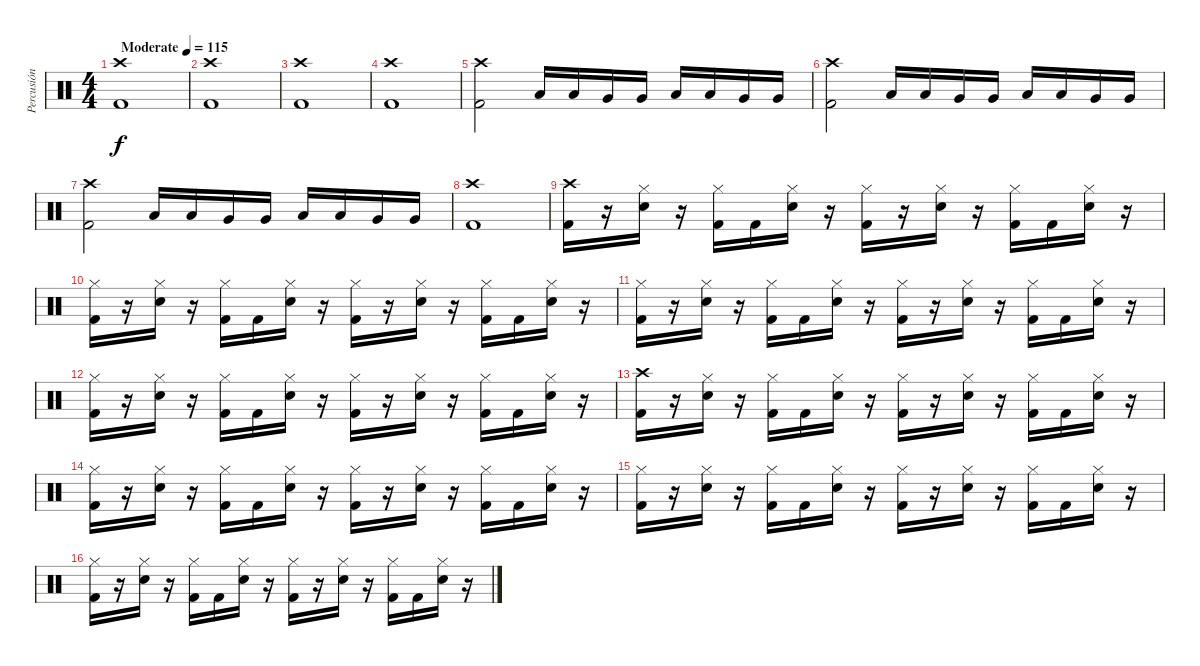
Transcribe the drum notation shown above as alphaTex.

\track ("Percusión" "Percusión") {instrument percussion}
\staff {score}
\articulation defaults
\ts (4 4)
\tempo (115 "Moderate")
\clef neutral
\ks c
("Crash high (hit)" "Kick (hit) 2").1{dy f} |
("Crash high (hit)" "Kick (hit) 2").1 |
("Crash high (hit)" "Kick (hit) 2").1 |
("Crash high (hit)" "Kick (hit) 2").1 |
("Crash high (hit)" "Kick (hit) 2").2 "Low Tom (hit)".16 "Low Tom (hit)".16 "Very Low Tom (hit)".16 "Very Low Tom (hit)".16 "Low Floor Tom (hit)".16 "Low Floor Tom (hit)".16 "Very Low Tom (hit)".16 "Very Low Tom (hit)".16 |
("Crash high (hit)" "Kick (hit) 2").2 "Low Tom (hit)".16 "Low Tom (hit)".16 "Very Low Tom (hit)".16 "Very Low Tom (hit)".16 "Low Floor Tom (hit)".16 "Low Floor Tom (hit)".16 "Very Low Tom (hit)".16 "Very Low Tom (hit)".16 |
("Crash high (hit)" "Kick (hit) 2").2 "Low Tom (hit)".16 "Low Tom (hit)".16 "Very Low Tom (hit)".16 "Very Low Tom (hit)".16 "Low Floor Tom (hit)".16 "Low Floor Tom (hit)".16 "Very Low Tom (hit)".16 "Very Low Tom (hit)".16 |
("Crash high (hit)" "Kick (hit) 2").1 |
("Crash high (hit)" "Kick (hit) 2").16 r.16 ("Hi-Hat (closed)" "Electric Snare (hit)").16 r.16 ("Hi-Hat (closed)" "Kick (hit) 2").16 "Kick (hit) 2".16 ("Hi-Hat (closed)" "Electric Snare (hit)").16 r.16 ("Hi-Hat (closed)" "Kick (hit) 2").16 r.16 ("Hi-Hat (closed)" "Electric Snare (hit)").16 r.16 ("Hi-Hat (closed)" "Kick (hit) 2").16 "Kick (hit) 2".16 ("Hi-Hat (closed)" "Electric Snare (hit)").16 r.16 |
("Hi-Hat (closed)" "Kick (hit) 2").16 r.16 ("Hi-Hat (closed)" "Electric Snare (hit)").16 r.16 ("Hi-Hat (closed)" "Kick (hit) 2").16 "Kick (hit) 2".16 ("Hi-Hat (closed)" "Electric Snare (hit)").16 r.16 ("Hi-Hat (closed)" "Kick (hit) 2").16 r.16 ("Hi-Hat (closed)" "Electric Snare (hit)").16 r.16 ("Hi-Hat (closed)" "Kick (hit) 2").16 "Kick (hit) 2".16 ("Hi-Hat (closed)" "Electric Snare (hit)").16 r.16 |
("Hi-Hat (closed)" "Kick (hit) 2").16 r.16 ("Hi-Hat (closed)" "Electric Snare (hit)").16 r.16 ("Hi-Hat (closed)" "Kick (hit) 2").16 "Kick (hit) 2".16 ("Hi-Hat (closed)" "Electric Snare (hit)").16 r.16 ("Hi-Hat (closed)" "Kick (hit) 2").16 r.16 ("Hi-Hat (closed)" "Electric Snare (hit)").16 r.16 ("Hi-Hat (closed)" "Kick (hit) 2").16 "Kick (hit) 2".16 ("Hi-Hat (closed)" "Electric Snare (hit)").16 r.16 |
("Hi-Hat (closed)" "Kick (hit) 2").16 r.16 ("Hi-Hat (closed)" "Electric Snare (hit)").16 r.16 ("Hi-Hat (closed)" "Kick (hit) 2").16 "Kick (hit) 2".16 ("Hi-Hat (closed)" "Electric Snare (hit)").16 r.16 ("Hi-Hat (closed)" "Kick (hit) 2").16 r.16 ("Hi-Hat (closed)" "Electric Snare (hit)").16 r.16 ("Hi-Hat (closed)" "Kick (hit) 2").16 "Kick (hit) 2".16 ("Hi-Hat (closed)" "Electric Snare (hit)").16 r.16 |
("Crash high (hit)" "Kick (hit) 2").16 r.16 ("Hi-Hat (closed)" "Electric Snare (hit)").16 r.16 ("Hi-Hat (closed)" "Kick (hit) 2").16 "Kick (hit) 2".16 ("Hi-Hat (closed)" "Electric Snare (hit)").16 r.16 ("Hi-Hat (closed)" "Kick (hit) 2").16 r.16 ("Hi-Hat (closed)" "Electric Snare (hit)").16 r.16 ("Hi-Hat (closed)" "Kick (hit) 2").16 "Kick (hit) 2".16 ("Hi-Hat (closed)" "Electric Snare (hit)").16 r.16 |
("Hi-Hat (closed)" "Kick (hit) 2").16 r.16 ("Hi-Hat (closed)" "Electric Snare (hit)").16 r.16 ("Hi-Hat (closed)" "Kick (hit) 2").16 "Kick (hit) 2".16 ("Hi-Hat (closed)" "Electric Snare (hit)").16 r.16 ("Hi-Hat (closed)" "Kick (hit) 2").16 r.16 ("Hi-Hat (closed)" "Electric Snare (hit)").16 r.16 ("Hi-Hat (closed)" "Kick (hit) 2").16 "Kick (hit) 2".16 ("Hi-Hat (closed)" "Electric Snare (hit)").16 r.16 |
("Hi-Hat (closed)" "Kick (hit) 2").16 r.16 ("Hi-Hat (closed)" "Electric Snare (hit)").16 r.16 ("Hi-Hat (closed)" "Kick (hit) 2").16 "Kick (hit) 2".16 ("Hi-Hat (closed)" "Electric Snare (hit)").16 r.16 ("Hi-Hat (closed)" "Kick (hit) 2").16 r.16 ("Hi-Hat (closed)" "Electric Snare (hit)").16 r.16 ("Hi-Hat (closed)" "Kick (hit) 2").16 "Kick (hit) 2".16 ("Hi-Hat (closed)" "Electric Snare (hit)").16 r.16 |
("Hi-Hat (closed)" "Kick (hit) 2").16 r.16 ("Hi-Hat (closed)" "Electric Snare (hit)").16 r.16 ("Hi-Hat (closed)" "Kick (hit) 2").16 "Kick (hit) 2".16 ("Hi-Hat (closed)" "Electric Snare (hit)").16 r.16 ("Hi-Hat (closed)" "Kick (hit) 2").16 r.16 ("Hi-Hat (closed)" "Electric Snare (hit)").16 r.16 ("Hi-Hat (closed)" "Kick (hit) 2").16 "Kick (hit) 2".16 ("Hi-Hat (closed)" "Electric Snare (hit)").16 r.16
